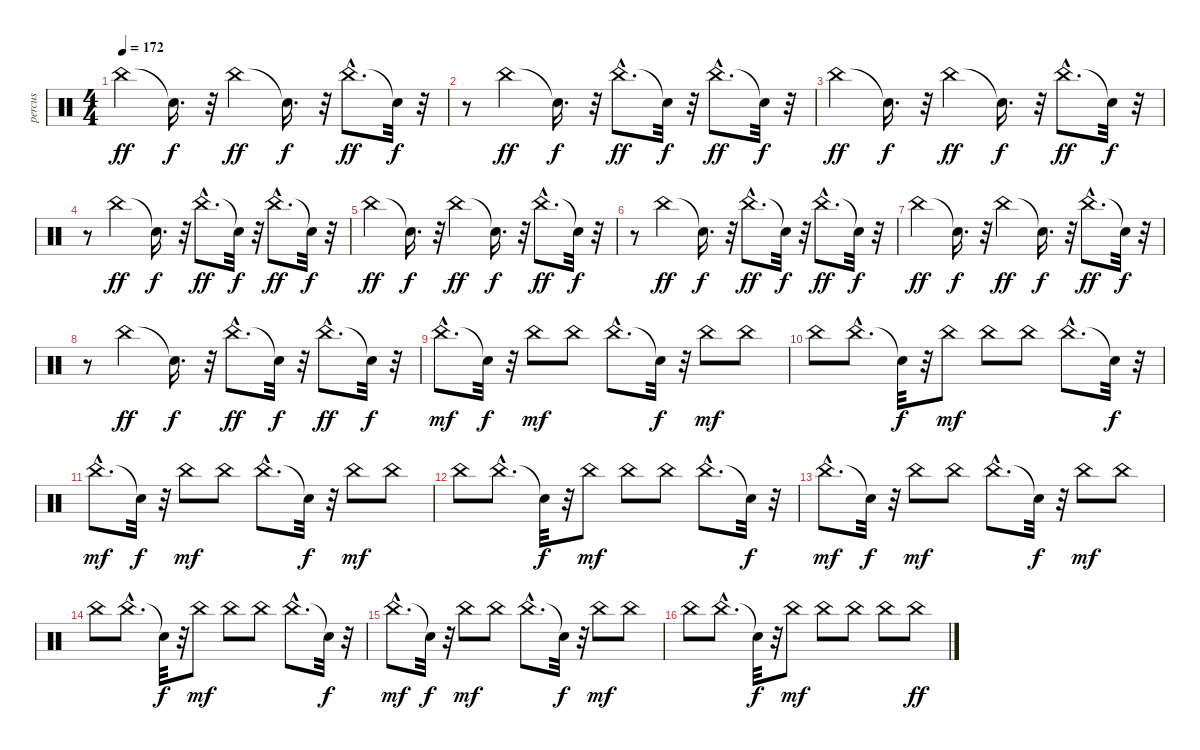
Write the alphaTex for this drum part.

\track ("percus" "percus") {instrument percussion}
\staff {score}
\articulation defaults
\ts (4 4)
\tempo 172
\clef neutral
\ks c "China (hit)".4{dy ff} "Snare (hit)"{t}.16{d dy f}
r.32 "China (hit)".4{dy ff} "Snare (hit)"{t}.16{d dy f} r.32 "China (hit)"{hac}.8{d dy ff} "Snare (hit)"{t}.32{dy f} r.32 |
r.8 "China (hit)".4{dy ff} "Snare (hit)"{t}.16{d dy f} r.32 "China (hit)"{hac}.8{d dy ff} "Snare (hit)"{t}.32{dy f} r.32 "China (hit)"{hac}.8{d dy ff} "Snare (hit)"{t}.32{dy f} r.32 |
"China (hit)".4{dy ff} "Snare (hit)"{t}.16{d dy f} r.32 "China (hit)".4{dy ff} "Snare (hit)"{t}.16{d dy f} r.32 "China (hit)"{hac}.8{d dy ff} "Snare (hit)"{t}.32{dy f} r.32 |
r.8 "China (hit)".4{dy ff} "Snare (hit)"{t}.16{d dy f} r.32 "China (hit)"{hac}.8{d dy ff} "Snare (hit)"{t}.32{dy f} r.32 "China (hit)"{hac}.8{d dy ff} "Snare (hit)"{t}.32{dy f} r.32 |
"China (hit)".4{dy ff} "Snare (hit)"{t}.16{d dy f} r.32 "China (hit)".4{dy ff} "Snare (hit)"{t}.16{d dy f} r.32 "China (hit)"{hac}.8{d dy ff} "Snare (hit)"{t}.32{dy f} r.32 |
r.8 "China (hit)".4{dy ff} "Snare (hit)"{t}.16{d dy f} r.32 "China (hit)"{hac}.8{d dy ff} "Snare (hit)"{t}.32{dy f} r.32 "China (hit)"{hac}.8{d dy ff} "Snare (hit)"{t}.32{dy f} r.32 |
"China (hit)".4{dy ff} "Snare (hit)"{t}.16{d dy f} r.32 "China (hit)".4{dy ff} "Snare (hit)"{t}.16{d dy f} r.32 "China (hit)"{hac}.8{d dy ff} "Snare (hit)"{t}.32{dy f} r.32 |
r.8 "China (hit)".4{dy ff} "Snare (hit)"{t}.16{d dy f} r.32 "China (hit)"{hac}.8{d dy ff} "Snare (hit)"{t}.32{dy f} r.32 "China (hit)"{hac}.8{d dy ff} "Snare (hit)"{t}.32{dy f} r.32 |
"China (hit)"{hac}.8{d dy mf} "Snare (hit)"{t}.32{dy f} r.32 "China (hit)".8{dy mf} "China (hit)".8 "China (hit)"{hac}.8{d} "Snare (hit)"{t}.32{dy f} r.32 "China (hit)".8{dy mf} "China (hit)".8 |
"China (hit)".8 "China (hit)"{hac}.8{d} "Snare (hit)"{t}.32{dy f} r.32 "China (hit)".8{dy mf} "China (hit)".8 "China (hit)".8 "China (hit)"{hac}.8{d} "Snare (hit)"{t}.32{dy f} r.32 |
"China (hit)"{hac}.8{d dy mf} "Snare (hit)"{t}.32{dy f} r.32 "China (hit)".8{dy mf} "China (hit)".8 "China (hit)"{hac}.8{d} "Snare (hit)"{t}.32{dy f} r.32 "China (hit)".8{dy mf} "China (hit)".8 |
"China (hit)".8 "China (hit)"{hac}.8{d} "Snare (hit)"{t}.32{dy f} r.32 "China (hit)".8{dy mf} "China (hit)".8 "China (hit)".8 "China (hit)"{hac}.8{d} "Snare (hit)"{t}.32{dy f} r.32 |
"China (hit)"{hac}.8{d dy mf} "Snare (hit)"{t}.32{dy f} r.32 "China (hit)".8{dy mf} "China (hit)".8 "China (hit)"{hac}.8{d} "Snare (hit)"{t}.32{dy f} r.32 "China (hit)".8{dy mf} "China (hit)".8 |
"China (hit)".8 "China (hit)"{hac}.8{d} "Snare (hit)"{t}.32{dy f} r.32 "China (hit)".8{dy mf} "China (hit)".8 "China (hit)".8 "China (hit)"{hac}.8{d} "Snare (hit)"{t}.32{dy f} r.32 |
"China (hit)"{hac}.8{d dy mf} "Snare (hit)"{t}.32{dy f} r.32 "China (hit)".8{dy mf} "China (hit)".8 "China (hit)"{hac}.8{d} "Snare (hit)"{t}.32{dy f} r.32 "China (hit)".8{dy mf} "China (hit)".8 |
"China (hit)".8 "China (hit)"{hac}.8{d} "Snare (hit)"{t}.32{dy f} r.32 "China (hit)".8{dy mf} "China (hit)".8 "China (hit)".8 "China (hit)".8 "China (hit)".8{dy ff}
